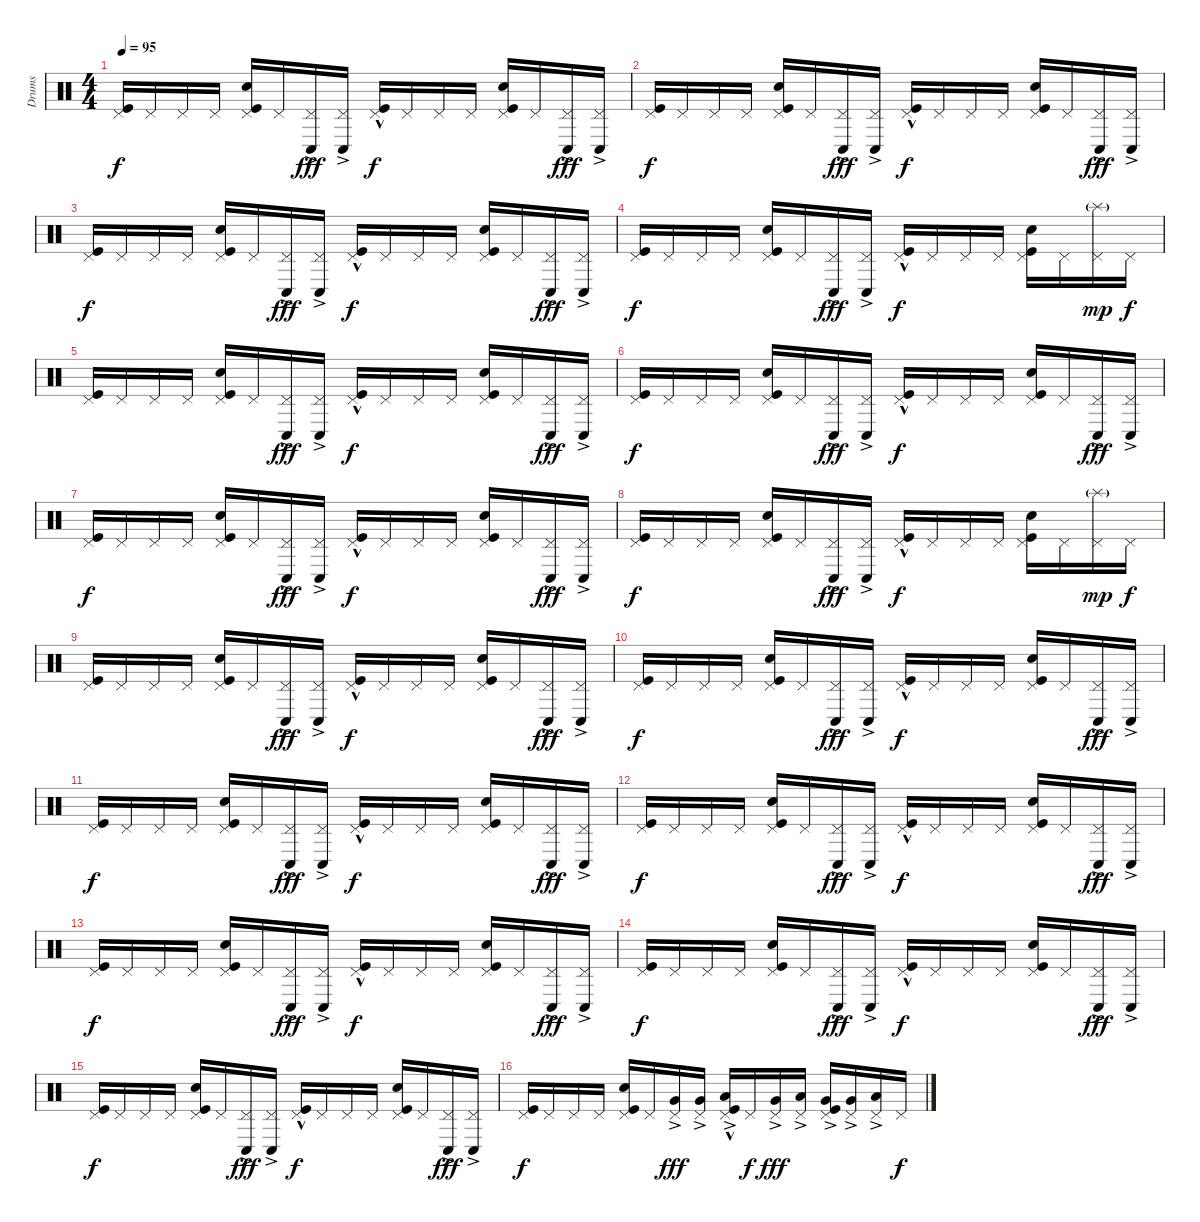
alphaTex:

\track ("Drums" "Drums") {instrument percussion}
\staff {score}
\articulation defaults
\ts (4 4)
\tempo 95
\clef neutral
\ks c
("Kick (hit)" "Pedal Hi-Hat (hit)").16{dy f} "Pedal Hi-Hat (hit)".16 "Pedal Hi-Hat (hit)".16 "Pedal Hi-Hat (hit)".16 ("Kick (hit)" "Snare (hit) 2" "Pedal Hi-Hat (hit)").16 "Pedal Hi-Hat (hit)".16 ("Conga low (hit)"{ac} "Pedal Hi-Hat (hit)").16{dy fff} ("Conga low (hit)"{ac} "Pedal Hi-Hat (hit)").16 ("Kick (hit)" "Pedal Hi-Hat (hit)"{hac}).16{dy f} "Pedal Hi-Hat (hit)".16 "Pedal Hi-Hat (hit)".16 "Pedal Hi-Hat (hit)".16 ("Kick (hit)" "Snare (hit) 2" "Pedal Hi-Hat (hit)").16 "Pedal Hi-Hat (hit)".16 ("Conga low (hit)"{ac} "Pedal Hi-Hat (hit)").16{dy fff} ("Conga low (hit)"{ac} "Pedal Hi-Hat (hit)").16 |
("Kick (hit)" "Pedal Hi-Hat (hit)").16{dy f} "Pedal Hi-Hat (hit)".16 "Pedal Hi-Hat (hit)".16 "Pedal Hi-Hat (hit)".16 ("Kick (hit)" "Snare (hit) 2" "Pedal Hi-Hat (hit)").16 "Pedal Hi-Hat (hit)".16 ("Conga low (hit)"{ac} "Pedal Hi-Hat (hit)").16{dy fff} ("Conga low (hit)"{ac} "Pedal Hi-Hat (hit)").16 ("Kick (hit)" "Pedal Hi-Hat (hit)"{hac}).16{dy f} "Pedal Hi-Hat (hit)".16 "Pedal Hi-Hat (hit)".16 "Pedal Hi-Hat (hit)".16 ("Kick (hit)" "Snare (hit) 2" "Pedal Hi-Hat (hit)").16 "Pedal Hi-Hat (hit)".16 ("Conga low (hit)"{ac} "Pedal Hi-Hat (hit)").16{dy fff} ("Conga low (hit)"{ac} "Pedal Hi-Hat (hit)").16 |
("Kick (hit)" "Pedal Hi-Hat (hit)").16{dy f} "Pedal Hi-Hat (hit)".16 "Pedal Hi-Hat (hit)".16 "Pedal Hi-Hat (hit)".16 ("Kick (hit)" "Snare (hit) 2" "Pedal Hi-Hat (hit)").16 "Pedal Hi-Hat (hit)".16 ("Conga low (hit)"{ac} "Pedal Hi-Hat (hit)").16{dy fff} ("Conga low (hit)"{ac} "Pedal Hi-Hat (hit)").16 ("Kick (hit)" "Pedal Hi-Hat (hit)"{hac}).16{dy f} "Pedal Hi-Hat (hit)".16 "Pedal Hi-Hat (hit)".16 "Pedal Hi-Hat (hit)".16 ("Kick (hit)" "Snare (hit) 2" "Pedal Hi-Hat (hit)").16 "Pedal Hi-Hat (hit)".16 ("Conga low (hit)"{ac} "Pedal Hi-Hat (hit)").16{dy fff} ("Conga low (hit)"{ac} "Pedal Hi-Hat (hit)").16 |
("Kick (hit)" "Pedal Hi-Hat (hit)").16{dy f} "Pedal Hi-Hat (hit)".16 "Pedal Hi-Hat (hit)".16 "Pedal Hi-Hat (hit)".16 ("Kick (hit)" "Snare (hit) 2" "Pedal Hi-Hat (hit)").16 "Pedal Hi-Hat (hit)".16 ("Conga low (hit)"{ac} "Pedal Hi-Hat (hit)").16{dy fff} ("Conga low (hit)"{ac} "Pedal Hi-Hat (hit)").16 ("Kick (hit)" "Pedal Hi-Hat (hit)"{hac}).16{dy f} "Pedal Hi-Hat (hit)".16 "Pedal Hi-Hat (hit)".16 "Pedal Hi-Hat (hit)".16 ("Kick (hit)" "Snare (hit) 2" "Pedal Hi-Hat (hit)").16 "Pedal Hi-Hat (hit)".16 ("Splash (hit)"{g} "Pedal Hi-Hat (hit)").16{dy mp} "Pedal Hi-Hat (hit)".16{dy f} |
("Kick (hit)" "Pedal Hi-Hat (hit)").16 "Pedal Hi-Hat (hit)".16 "Pedal Hi-Hat (hit)".16 "Pedal Hi-Hat (hit)".16 ("Kick (hit)" "Snare (hit) 2" "Pedal Hi-Hat (hit)").16 "Pedal Hi-Hat (hit)".16 ("Conga low (hit)"{ac} "Pedal Hi-Hat (hit)").16{dy fff} ("Conga low (hit)"{ac} "Pedal Hi-Hat (hit)").16 ("Kick (hit)" "Pedal Hi-Hat (hit)"{hac}).16{dy f} "Pedal Hi-Hat (hit)".16 "Pedal Hi-Hat (hit)".16 "Pedal Hi-Hat (hit)".16 ("Kick (hit)" "Snare (hit) 2" "Pedal Hi-Hat (hit)").16 "Pedal Hi-Hat (hit)".16 ("Conga low (hit)"{ac} "Pedal Hi-Hat (hit)").16{dy fff} ("Conga low (hit)"{ac} "Pedal Hi-Hat (hit)").16 |
("Kick (hit)" "Pedal Hi-Hat (hit)").16{dy f} "Pedal Hi-Hat (hit)".16 "Pedal Hi-Hat (hit)".16 "Pedal Hi-Hat (hit)".16 ("Kick (hit)" "Snare (hit) 2" "Pedal Hi-Hat (hit)").16 "Pedal Hi-Hat (hit)".16 ("Conga low (hit)"{ac} "Pedal Hi-Hat (hit)").16{dy fff} ("Conga low (hit)"{ac} "Pedal Hi-Hat (hit)").16 ("Kick (hit)" "Pedal Hi-Hat (hit)"{hac}).16{dy f} "Pedal Hi-Hat (hit)".16 "Pedal Hi-Hat (hit)".16 "Pedal Hi-Hat (hit)".16 ("Kick (hit)" "Snare (hit) 2" "Pedal Hi-Hat (hit)").16 "Pedal Hi-Hat (hit)".16 ("Conga low (hit)"{ac} "Pedal Hi-Hat (hit)").16{dy fff} ("Conga low (hit)"{ac} "Pedal Hi-Hat (hit)").16 |
("Kick (hit)" "Pedal Hi-Hat (hit)").16{dy f} "Pedal Hi-Hat (hit)".16 "Pedal Hi-Hat (hit)".16 "Pedal Hi-Hat (hit)".16 ("Kick (hit)" "Snare (hit) 2" "Pedal Hi-Hat (hit)").16 "Pedal Hi-Hat (hit)".16 ("Conga low (hit)"{ac} "Pedal Hi-Hat (hit)").16{dy fff} ("Conga low (hit)"{ac} "Pedal Hi-Hat (hit)").16 ("Kick (hit)" "Pedal Hi-Hat (hit)"{hac}).16{dy f} "Pedal Hi-Hat (hit)".16 "Pedal Hi-Hat (hit)".16 "Pedal Hi-Hat (hit)".16 ("Kick (hit)" "Snare (hit) 2" "Pedal Hi-Hat (hit)").16 "Pedal Hi-Hat (hit)".16 ("Conga low (hit)"{ac} "Pedal Hi-Hat (hit)").16{dy fff} ("Conga low (hit)"{ac} "Pedal Hi-Hat (hit)").16 |
("Kick (hit)" "Pedal Hi-Hat (hit)").16{dy f} "Pedal Hi-Hat (hit)".16 "Pedal Hi-Hat (hit)".16 "Pedal Hi-Hat (hit)".16 ("Kick (hit)" "Snare (hit) 2" "Pedal Hi-Hat (hit)").16 "Pedal Hi-Hat (hit)".16 ("Conga low (hit)"{ac} "Pedal Hi-Hat (hit)").16{dy fff} ("Conga low (hit)"{ac} "Pedal Hi-Hat (hit)").16 ("Kick (hit)" "Pedal Hi-Hat (hit)"{hac}).16{dy f} "Pedal Hi-Hat (hit)".16 "Pedal Hi-Hat (hit)".16 "Pedal Hi-Hat (hit)".16 ("Kick (hit)" "Snare (hit) 2" "Pedal Hi-Hat (hit)").16 "Pedal Hi-Hat (hit)".16 ("Splash (hit)"{g} "Pedal Hi-Hat (hit)").16{dy mp} "Pedal Hi-Hat (hit)".16{dy f} |
("Kick (hit)" "Pedal Hi-Hat (hit)").16 "Pedal Hi-Hat (hit)".16 "Pedal Hi-Hat (hit)".16 "Pedal Hi-Hat (hit)".16 ("Kick (hit)" "Snare (hit) 2" "Pedal Hi-Hat (hit)").16 "Pedal Hi-Hat (hit)".16 ("Conga low (hit)"{ac} "Pedal Hi-Hat (hit)").16{dy fff} ("Conga low (hit)"{ac} "Pedal Hi-Hat (hit)").16 ("Kick (hit)" "Pedal Hi-Hat (hit)"{hac}).16{dy f} "Pedal Hi-Hat (hit)".16 "Pedal Hi-Hat (hit)".16 "Pedal Hi-Hat (hit)".16 ("Kick (hit)" "Snare (hit) 2" "Pedal Hi-Hat (hit)").16 "Pedal Hi-Hat (hit)".16 ("Conga low (hit)"{ac} "Pedal Hi-Hat (hit)").16{dy fff} ("Conga low (hit)"{ac} "Pedal Hi-Hat (hit)").16 |
("Kick (hit)" "Pedal Hi-Hat (hit)").16{dy f} "Pedal Hi-Hat (hit)".16 "Pedal Hi-Hat (hit)".16 "Pedal Hi-Hat (hit)".16 ("Kick (hit)" "Snare (hit) 2" "Pedal Hi-Hat (hit)").16 "Pedal Hi-Hat (hit)".16 ("Conga low (hit)"{ac} "Pedal Hi-Hat (hit)").16{dy fff} ("Conga low (hit)"{ac} "Pedal Hi-Hat (hit)").16 ("Kick (hit)" "Pedal Hi-Hat (hit)"{hac}).16{dy f} "Pedal Hi-Hat (hit)".16 "Pedal Hi-Hat (hit)".16 "Pedal Hi-Hat (hit)".16 ("Kick (hit)" "Snare (hit) 2" "Pedal Hi-Hat (hit)").16 "Pedal Hi-Hat (hit)".16 ("Conga low (hit)"{ac} "Pedal Hi-Hat (hit)").16{dy fff} ("Conga low (hit)"{ac} "Pedal Hi-Hat (hit)").16 |
("Kick (hit)" "Pedal Hi-Hat (hit)").16{dy f} "Pedal Hi-Hat (hit)".16 "Pedal Hi-Hat (hit)".16 "Pedal Hi-Hat (hit)".16 ("Kick (hit)" "Snare (hit) 2" "Pedal Hi-Hat (hit)").16 "Pedal Hi-Hat (hit)".16 ("Conga low (hit)"{ac} "Pedal Hi-Hat (hit)").16{dy fff} ("Conga low (hit)"{ac} "Pedal Hi-Hat (hit)").16 ("Kick (hit)" "Pedal Hi-Hat (hit)"{hac}).16{dy f} "Pedal Hi-Hat (hit)".16 "Pedal Hi-Hat (hit)".16 "Pedal Hi-Hat (hit)".16 ("Kick (hit)" "Snare (hit) 2" "Pedal Hi-Hat (hit)").16 "Pedal Hi-Hat (hit)".16 ("Conga low (hit)"{ac} "Pedal Hi-Hat (hit)").16{dy fff} ("Conga low (hit)"{ac} "Pedal Hi-Hat (hit)").16 |
("Kick (hit)" "Pedal Hi-Hat (hit)").16{dy f} "Pedal Hi-Hat (hit)".16 "Pedal Hi-Hat (hit)".16 "Pedal Hi-Hat (hit)".16 ("Kick (hit)" "Snare (hit) 2" "Pedal Hi-Hat (hit)").16 "Pedal Hi-Hat (hit)".16 ("Conga low (hit)"{ac} "Pedal Hi-Hat (hit)").16{dy fff} ("Conga low (hit)"{ac} "Pedal Hi-Hat (hit)").16 ("Kick (hit)" "Pedal Hi-Hat (hit)"{hac}).16{dy f} "Pedal Hi-Hat (hit)".16 "Pedal Hi-Hat (hit)".16 "Pedal Hi-Hat (hit)".16 ("Kick (hit)" "Snare (hit) 2" "Pedal Hi-Hat (hit)").16 "Pedal Hi-Hat (hit)".16 ("Conga low (hit)"{ac} "Pedal Hi-Hat (hit)").16{dy fff} ("Conga low (hit)"{ac} "Pedal Hi-Hat (hit)").16 |
("Kick (hit)" "Pedal Hi-Hat (hit)").16{dy f} "Pedal Hi-Hat (hit)".16 "Pedal Hi-Hat (hit)".16 "Pedal Hi-Hat (hit)".16 ("Kick (hit)" "Snare (hit) 2" "Pedal Hi-Hat (hit)").16 "Pedal Hi-Hat (hit)".16 ("Conga low (hit)"{ac} "Pedal Hi-Hat (hit)").16{dy fff} ("Conga low (hit)"{ac} "Pedal Hi-Hat (hit)").16 ("Kick (hit)" "Pedal Hi-Hat (hit)"{hac}).16{dy f} "Pedal Hi-Hat (hit)".16 "Pedal Hi-Hat (hit)".16 "Pedal Hi-Hat (hit)".16 ("Kick (hit)" "Snare (hit) 2" "Pedal Hi-Hat (hit)").16 "Pedal Hi-Hat (hit)".16 ("Conga low (hit)"{ac} "Pedal Hi-Hat (hit)").16{dy fff} ("Conga low (hit)"{ac} "Pedal Hi-Hat (hit)").16 |
("Kick (hit)" "Pedal Hi-Hat (hit)").16{dy f} "Pedal Hi-Hat (hit)".16 "Pedal Hi-Hat (hit)".16 "Pedal Hi-Hat (hit)".16 ("Kick (hit)" "Snare (hit) 2" "Pedal Hi-Hat (hit)").16 "Pedal Hi-Hat (hit)".16 ("Conga low (hit)"{ac} "Pedal Hi-Hat (hit)").16{dy fff} ("Conga low (hit)"{ac} "Pedal Hi-Hat (hit)").16 ("Kick (hit)" "Pedal Hi-Hat (hit)"{hac}).16{dy f} "Pedal Hi-Hat (hit)".16 "Pedal Hi-Hat (hit)".16 "Pedal Hi-Hat (hit)".16 ("Kick (hit)" "Snare (hit) 2" "Pedal Hi-Hat (hit)").16 "Pedal Hi-Hat (hit)".16 ("Conga low (hit)"{ac} "Pedal Hi-Hat (hit)").16{dy fff} ("Conga low (hit)"{ac} "Pedal Hi-Hat (hit)").16 |
("Kick (hit)" "Pedal Hi-Hat (hit)").16{dy f} "Pedal Hi-Hat (hit)".16 "Pedal Hi-Hat (hit)".16 "Pedal Hi-Hat (hit)".16 ("Kick (hit)" "Snare (hit) 2" "Pedal Hi-Hat (hit)").16 "Pedal Hi-Hat (hit)".16 ("Conga low (hit)"{ac} "Pedal Hi-Hat (hit)").16{dy fff} ("Conga low (hit)"{ac} "Pedal Hi-Hat (hit)").16 ("Kick (hit)" "Pedal Hi-Hat (hit)"{hac}).16{dy f} "Pedal Hi-Hat (hit)".16 "Pedal Hi-Hat (hit)".16 "Pedal Hi-Hat (hit)".16 ("Kick (hit)" "Snare (hit) 2" "Pedal Hi-Hat (hit)").16 "Pedal Hi-Hat (hit)".16 ("Conga low (hit)"{ac} "Pedal Hi-Hat (hit)").16{dy fff} ("Conga low (hit)"{ac} "Pedal Hi-Hat (hit)").16 |
("Kick (hit)" "Pedal Hi-Hat (hit)").16{dy f} "Pedal Hi-Hat (hit)".16 "Pedal Hi-Hat (hit)".16 "Pedal Hi-Hat (hit)".16 ("Kick (hit)" "Snare (hit) 2" "Pedal Hi-Hat (hit)").16 "Pedal Hi-Hat (hit)".16 ("Very Low Tom (hit)"{ac} "Pedal Hi-Hat (hit)").16{dy fff} ("Very Low Tom (hit)"{ac} "Pedal Hi-Hat (hit)").16 ("Kick (hit)" "Low Floor Tom (hit)"{ac} "Pedal Hi-Hat (hit)"{hac}).16 "Pedal Hi-Hat (hit)".16{dy f} ("Very Low Tom (hit)"{ac} "Pedal Hi-Hat (hit)").16{dy fff} ("Low Floor Tom (hit)"{ac} "Pedal Hi-Hat (hit)").16 ("Kick (hit)" "Very Low Tom (hit)"{ac} "Pedal Hi-Hat (hit)").16 ("Very Low Tom (hit)"{ac} "Pedal Hi-Hat (hit)").16 ("Low Floor Tom (hit)"{ac} "Pedal Hi-Hat (hit)").16 "Pedal Hi-Hat (hit)".16{dy f}
